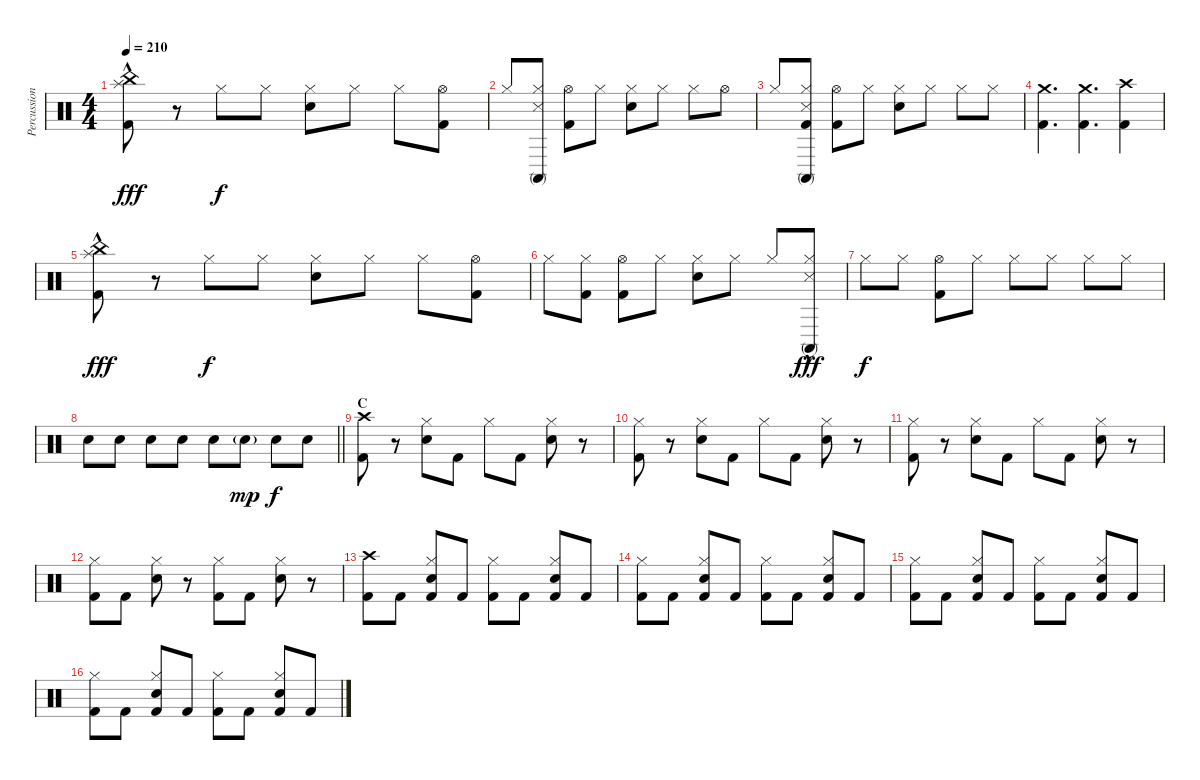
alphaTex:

\track ("Percussion" "Percussion") {instrument percussion}
\staff {score}
\articulation defaults
\ts (4 4)
\tempo 210
\clef neutral
\ks c
("China (hit)" "Splash (hit)"{hac} "Kick (hit) 2").8{dy fff} r.8 "Hi-Hat (closed)".8{dy f} "Hi-Hat (closed)".8 ("Hi-Hat (closed)" "Electric Snare (hit)").8 "Hi-Hat (closed)".8 "Hi-Hat (closed)".8 ("Hi-Hat (open)" "Kick (hit) 2").8 |
"Hi-Hat (closed)".8 ("Hi-Hat (closed)" "Snare (side stick) 3" "Conga high (mute)").8 ("Hi-Hat (open)" "Kick (hit) 2").8 "Hi-Hat (closed)".8 ("Hi-Hat (closed)" "Electric Snare (hit)").8 "Hi-Hat (closed)".8 "Hi-Hat (closed)".8 "Hi-Hat (open)".8 |
"Hi-Hat (closed)".8 ("Hi-Hat (closed)" "Snare (side stick) 3" "Conga high (mute)" "Kick (hit) 2").8 ("Hi-Hat (open)" "Kick (hit) 2").8 "Hi-Hat (closed)".8 ("Hi-Hat (closed)" "Electric Snare (hit)").8 "Hi-Hat (closed)".8 "Hi-Hat (closed)".8 "Hi-Hat (closed)".8 |
("Crash medium (hit)" "Kick (hit) 2").4{d} ("Crash medium (hit)" "Kick (hit) 2").4{d} ("Crash high (hit)" "Kick (hit) 2").4 |
("China (hit)" "Splash (hit)"{hac} "Kick (hit) 2").8{dy fff} r.8 "Hi-Hat (closed)".8{dy f} "Hi-Hat (closed)".8 ("Hi-Hat (closed)" "Electric Snare (hit)").8 "Hi-Hat (closed)".8 "Hi-Hat (closed)".8 ("Hi-Hat (open)" "Kick (hit) 2").8 |
"Hi-Hat (closed)".8 ("Hi-Hat (closed)" "Kick (hit) 2").8 ("Hi-Hat (open)" "Kick (hit) 2").8 "Hi-Hat (closed)".8 ("Hi-Hat (closed)" "Electric Snare (hit)").8 "Hi-Hat (closed)".8 "Hi-Hat (closed)".8 ("Hi-Hat (closed)" "Snare (side stick) 3"{hac} "Conga high (mute)"{hac}).8{dy fff} |
"Hi-Hat (closed)".8{dy f} "Hi-Hat (closed)".8 ("Hi-Hat (open)" "Kick (hit) 2").8 "Hi-Hat (closed)".8 "Hi-Hat (closed)".8 "Hi-Hat (closed)".8 "Hi-Hat (closed)".8 "Hi-Hat (closed)".8 |
\barLineRight lightlight "Electric Snare (hit)".8 "Electric Snare (hit)".8 "Electric Snare (hit)".8 "Electric Snare (hit)".8 "Electric Snare (hit)".8 "Electric Snare (hit)"{g}.8{dy mp} "Electric Snare (hit)".8{dy f} "Electric Snare (hit)".8
|
\section ("" "C")
("Crash high (hit)" "Kick (hit) 2").8 r.8 ("Hi-Hat (closed)" "Electric Snare (hit)").8 "Kick (hit) 2".8 "Hi-Hat (closed)".8 "Kick (hit) 2".8 ("Hi-Hat (closed)" "Electric Snare (hit)").8 r.8 |
("Hi-Hat (closed)" "Kick (hit) 2").8 r.8 ("Hi-Hat (closed)" "Electric Snare (hit)").8 "Kick (hit) 2".8 "Hi-Hat (closed)".8 "Kick (hit) 2".8 ("Hi-Hat (closed)" "Electric Snare (hit)").8 r.8 |
("Hi-Hat (closed)" "Kick (hit) 2").8 r.8 ("Hi-Hat (closed)" "Electric Snare (hit)").8 "Kick (hit) 2".8 "Hi-Hat (closed)".8 "Kick (hit) 2".8 ("Hi-Hat (closed)" "Electric Snare (hit)").8 r.8 |
("Hi-Hat (closed)" "Kick (hit) 2").8 "Kick (hit) 2".8 ("Hi-Hat (closed)" "Electric Snare (hit)").8 r.8 ("Hi-Hat (closed)" "Kick (hit) 2").8 "Kick (hit) 2".8 ("Hi-Hat (closed)" "Electric Snare (hit)").8 r.8 |
("Crash high (hit)" "Kick (hit) 2").8 "Kick (hit) 2".8 ("Hi-Hat (closed)" "Electric Snare (hit)" "Kick (hit) 2").8 "Kick (hit) 2".8 ("Hi-Hat (closed)" "Kick (hit) 2").8 "Kick (hit) 2".8 ("Hi-Hat (closed)" "Electric Snare (hit)" "Kick (hit) 2").8 "Kick (hit) 2".8 |
("Hi-Hat (closed)" "Kick (hit) 2").8 "Kick (hit) 2".8 ("Hi-Hat (closed)" "Electric Snare (hit)" "Kick (hit) 2").8 "Kick (hit) 2".8 ("Hi-Hat (closed)" "Kick (hit) 2").8 "Kick (hit) 2".8 ("Hi-Hat (closed)" "Electric Snare (hit)" "Kick (hit) 2").8 "Kick (hit) 2".8 |
("Hi-Hat (closed)" "Kick (hit) 2").8 "Kick (hit) 2".8 ("Hi-Hat (closed)" "Electric Snare (hit)" "Kick (hit) 2").8 "Kick (hit) 2".8 ("Hi-Hat (closed)" "Kick (hit) 2").8 "Kick (hit) 2".8 ("Hi-Hat (closed)" "Electric Snare (hit)" "Kick (hit) 2").8 "Kick (hit) 2".8 |
("Hi-Hat (closed)" "Kick (hit) 2").8 "Kick (hit) 2".8 ("Hi-Hat (closed)" "Electric Snare (hit)" "Kick (hit) 2").8 "Kick (hit) 2".8 ("Hi-Hat (closed)" "Kick (hit) 2").8 "Kick (hit) 2".8 ("Hi-Hat (closed)" "Electric Snare (hit)" "Kick (hit) 2").8 "Kick (hit) 2".8
